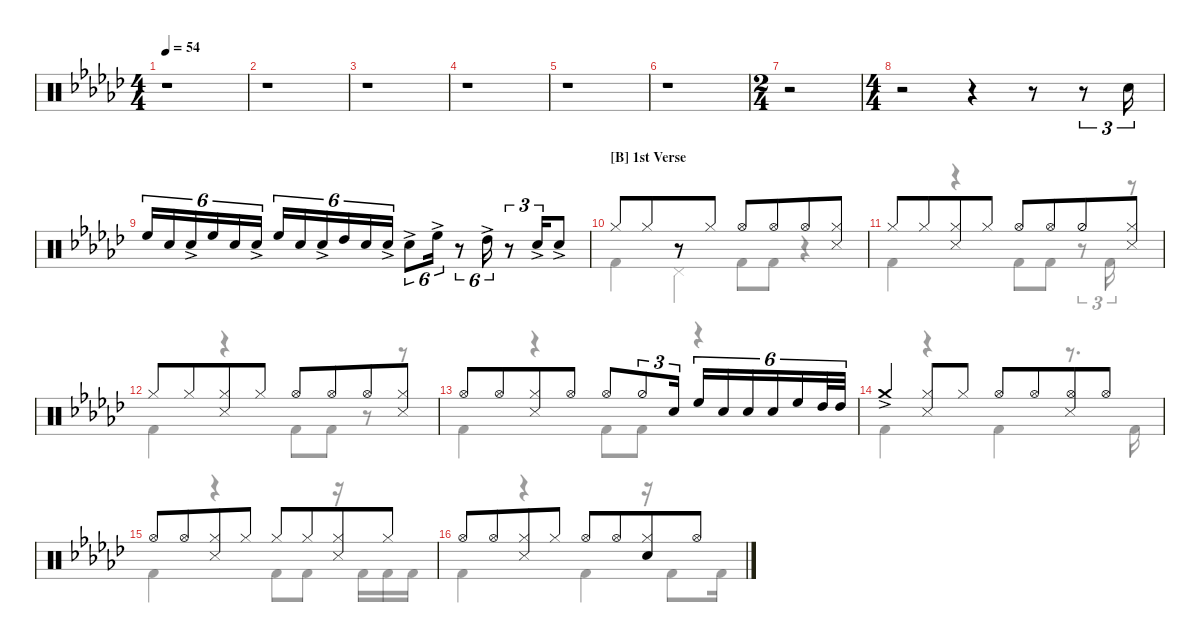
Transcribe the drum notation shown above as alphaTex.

\defaultSystemsLayout 4
\hideDynamics
\bracketExtendMode nobrackets
\singleTrackTrackNamePolicy hidden
\multiTrackTrackNamePolicy hidden
\otherSystemsTrackNameOrientation horizontal
\track ("Drums" "Dr.") {instrument percussion}
\staff {score}
\articulation defaults
\voice
\ts (4 4)
\tempo 54
\clef neutral
\scale
0.502183
\ks gb
r.1{dy mf beam Down} |
\scale
0.248908 r.1{beam Down} |
\scale
0.248908 r.1{beam Down} |
\scale
0.333333 r.1{beam Down} |
\scale
0.333333 r.1{beam Down} |
\scale
0.333333 r.1{beam Down} |
\ts (2 4)
\scale
0.333333 r.2{beam Down} |
\ts (4 4)
\scale
0.333333 r.2{beam Down} r.4{beam Down} r.8{beam Down} r.8{tu (3 2) beam Down} "Snare (hit) 2"{acc #}.16{tu (3 2) beam Up} |
\scale
0.333333 "High Floor Tom (hit)"{acc #}.16{tu (6 4) beam Up} "Snare (hit) 2"{acc #}.16{tu (6 4) beam Up} "Snare (hit) 2"{ac acc #}.16{tu (6 4) beam Up} "High Floor Tom (hit)"{acc #}.16{tu (6 4) beam Up} "Snare (hit) 2"{acc #}.16{tu (6 4) beam Up} "Snare (hit) 2"{ac acc #}.16{tu (6 4) beam Up} "High Floor Tom (hit)"{acc #}.16{tu (6 4) beam Up} "Snare (hit) 2"{acc #}.16{tu (6 4) beam Up} "Snare (hit) 2"{ac acc #}.16{tu (6 4) beam Up} "High Tom (hit)"{acc #}.16{tu (6 4) beam Up} "Snare (hit) 2"{acc #}.16{tu (6 4) beam Up} "Snare (hit) 2"{ac acc #}.16{tu (6 4) beam Up} "Snare (hit) 2"{ac acc #}.8{tu (6 4) beam Down} "High Floor Tom (hit)"{ac acc #}.16{tu (6 4) beam Down} r.8{tu (6 4) beam Down} "High Tom (hit)"{ac acc #}.16{tu (6 4) beam Down} r.8{tu (3 2) beam Up beam merge} "Snare (hit) 2"{ac acc #}.16{tu (3 2) beam Up beam merge} "Snare (hit) 2"{ac acc #}.8{beam Up} |
\section ("B" "1st Verse")
\scale
0.266816 "Hi-Hat (closed)"{acc #}.8{dy mp beam Up beam merge} "Hi-Hat (closed)"{acc #}.8{beam Up beam merge} r.8{beam Up beam merge} "Hi-Hat (closed)"{acc #}.8{beam Up} "Hi-Hat (open)"{acc #}.8{beam Up} "Hi-Hat (open)"{acc #}.8{beam Up beam merge} "Hi-Hat (open)"{acc #}.8{beam Up} ("Hi-Hat (closed)"{acc #} "Snare (side stick) 3"{acc #}).8{beam Up} |
\scale
0.227743 "Hi-Hat (closed)"{acc #}.8{beam Up} "Hi-Hat (closed)"{acc #}.8{beam Up beam merge} ("Hi-Hat (closed)"{acc #} "Snare (side stick) 3"{acc #}).8{beam Up} "Hi-Hat (closed)"{acc #}.8{beam Up} "Hi-Hat (open)"{acc #}.8{beam Up} "Hi-Hat (open)"{acc #}.8{beam Up beam merge} "Hi-Hat (half)"{acc #}.8{beam Up} ("Hi-Hat (closed)"{acc #} "Snare (side stick) 3"{acc #}).8{beam Up} |
\scale
0.235252 "Hi-Hat (closed)"{acc #}.8{beam Up} "Hi-Hat (closed)"{acc #}.8{beam Up beam merge} ("Hi-Hat (closed)"{acc #} "Snare (side stick) 3"{acc #}).8{beam Up} "Hi-Hat (closed)"{acc #}.8{beam Up} "Hi-Hat (open)"{acc #}.8{beam Up} "Hi-Hat (open)"{acc #}.8{beam Up beam merge} "Hi-Hat (open)"{acc #}.8{beam Up} ("Hi-Hat (closed)"{acc #} "Snare (side stick) 3"{acc #}).8{beam Up} |
\scale
0.271387 "Hi-Hat (open)"{acc #}.8{beam Up} "Hi-Hat (open)"{acc #}.8{beam Up beam merge} ("Hi-Hat (closed)"{acc #} "Snare (side stick) 3"{acc #}).8{beam Up} "Hi-Hat (open)"{acc #}.8{beam Up} "Hi-Hat (open)"{acc #}.8{beam Up beam merge} "Hi-Hat (half)"{acc #}.8{tu (3 2) beam Up} "Snare (hit) 2"{acc #}.16{tu (3 2) beam Up} "High Floor Tom (hit)"{acc #}.16{tu (6 4) beam Up} "Snare (hit) 2"{acc #}.16{tu (6 4) beam Up} "Snare (hit) 2"{acc #}.16{tu (6 4) beam Up} "Snare (hit) 2"{acc #}.16{tu (6 4) beam Up} "High Floor Tom (hit)"{acc #}.16{tu (6 4) beam Up} "High Tom (hit)"{acc #}.32{tu (6 4) beam Up} "High Tom (hit)"{acc #}.32{tu (6 4) beam Up} |
"Crash medium (hit)"{ac acc #}.4{beam Up} ("Hi-Hat (closed)"{acc #} "Snare (side stick) 3"{acc #}).8{beam Up} "Hi-Hat (closed)"{acc #}.8{beam Up} "Hi-Hat (open)"{acc #}.8{beam Up} "Hi-Hat (open)"{acc #}.8{beam Up beam merge} ("Hi-Hat (open)"{acc #} "Snare (side stick) 3"{acc #}).8{beam Up} "Hi-Hat (open)"{acc #}.8{beam Up} |
"Hi-Hat (open)"{acc #}.8{beam Up} "Hi-Hat (open)"{acc #}.8{beam Up beam merge} ("Hi-Hat (closed)"{acc #} "Snare (side stick) 3"{acc #}).8{beam Up} "Hi-Hat (closed)"{acc #}.8{beam Up} "Hi-Hat (closed)"{acc #}.8{beam Up} "Hi-Hat (closed)"{acc #}.8{beam Up beam merge} ("Hi-Hat (closed)"{acc #} "Snare (side stick) 3"{acc #}).8{beam Up} "Hi-Hat (closed)"{acc #}.8{beam Up} |
"Hi-Hat (open)"{acc #}.8{beam Up} "Hi-Hat (open)"{acc #}.8{beam Up beam merge} ("Hi-Hat (closed)"{acc #} "Snare (side stick) 3"{acc #}).8{beam Up} "Hi-Hat (closed)"{acc #}.8{beam Up} "Hi-Hat (open)"{acc #}.8{beam Up} "Hi-Hat (open)"{acc #}.8{beam Up beam merge} ("Hi-Hat (closed)"{acc #} "Snare (hit) 2"{acc #}).8{beam Up} "Hi-Hat (open)"{acc #}.8{beam Up}
\voice
\clef neutral
\ottava regular
\simile none
\scale
0.502183
\ks gb
|
\scale
0.248908 |
\scale
0.248908 |
\scale
0.333333 |
\scale
0.333333 |
\scale
0.333333 |
\scale
0.333333 |
\scale
0.333333 |
\scale
0.333333 |
\scale
0.266816 "Kick (hit) 2"{acc #}.4{beam Down} "Pedal Hi-Hat (hit)"{acc #}.4{beam Down} "Kick (hit) 2"{acc #}.8{beam Down} "Kick (hit) 2"{acc #}.8{beam Down} r.4{beam Down} |
\scale
0.227743 "Kick (hit) 2"{acc #}.4{beam Down} r.4{beam Down} "Kick (hit) 2"{acc #}.8{beam Down} "Kick (hit) 2"{acc #}.8{beam Down} r.8{tu (3 2) beam Down} "Kick (hit) 2"{acc #}.16{tu (3 2) beam Down} r.8{beam Down} |
\scale
0.235252 "Kick (hit) 2"{acc #}.4{beam Down} r.4{beam Down} "Kick (hit) 2"{acc #}.8{beam Down} "Kick (hit) 2"{acc #}.8{beam Down} r.8{beam Down} r.8{beam Down} |
\scale
0.271387 "Kick (hit) 2"{acc #}.4{beam Down} r.4{beam Down} "Kick (hit) 2"{acc #}.8{beam Down} "Kick (hit) 2"{acc #}.8{beam Down} r.4{beam Down} |
"Kick (hit) 2"{acc #}.4{beam Down} r.4{beam Down} "Kick (hit) 2"{acc #}.4{beam Down} r.8{d beam Down} "Kick (hit) 2"{acc #}.16{beam Down} |
"Kick (hit) 2"{acc #}.4{beam Down} r.4{beam Down} "Kick (hit) 2"{acc #}.8{beam Down} "Kick (hit) 2"{acc #}.8{beam Down} r.16{beam Down} "Kick (hit) 2"{acc #}.16{beam Down} "Kick (hit) 2"{acc #}.16{beam Down} "Kick (hit) 2"{acc #}.16{beam Down} |
"Kick (hit) 2"{acc #}.4{beam Down} r.4{beam Down} "Kick (hit) 2"{acc #}.4{beam Down} r.16{beam Down} "Kick (hit) 2"{acc #}.8{beam Down} "Kick (hit) 2"{acc #}.16{beam Down}
